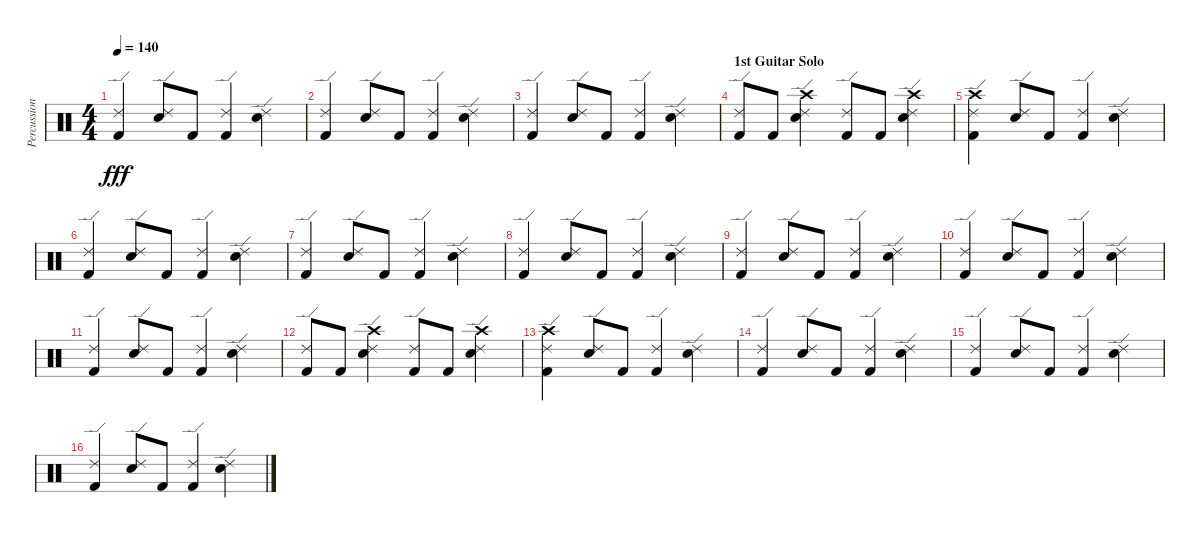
\track ("Percussion" "Percussion") {instrument percussion}
\staff {score}
\articulation defaults
\ts (4 4)
\tempo 140
\clef neutral
\ks c
("Ride (edge) 2" "Kick (hit) 2").4{dy fff} ("Ride (edge) 2" "Electric Snare (hit)").8 "Kick (hit) 2".8 ("Ride (edge) 2" "Kick (hit) 2").4 ("Ride (edge) 2" "Electric Snare (hit)").4 |
("Ride (edge) 2" "Kick (hit) 2").4 ("Ride (edge) 2" "Electric Snare (hit)").8 "Kick (hit) 2".8 ("Ride (edge) 2" "Kick (hit) 2").4 ("Ride (edge) 2" "Electric Snare (hit)").4 |
("Ride (edge) 2" "Kick (hit) 2").4 ("Ride (edge) 2" "Electric Snare (hit)").8 "Kick (hit) 2".8 ("Ride (edge) 2" "Kick (hit) 2").4 ("Ride (edge) 2" "Electric Snare (hit)").4 |
\section ("" "1st Guitar Solo ")
("Ride (edge) 2" "Kick (hit) 2").8 "Kick (hit) 2".8 ("Crash high (hit)" "Ride (edge) 2" "Electric Snare (hit)").4 ("Ride (edge) 2" "Kick (hit) 2").8 "Kick (hit) 2".8 ("Crash high (hit)" "Ride (edge) 2" "Electric Snare (hit)").4 |
("Crash high (hit)" "Ride (edge) 2" "Kick (hit) 2").4 ("Ride (edge) 2" "Electric Snare (hit)").8 "Kick (hit) 2".8 ("Ride (edge) 2" "Kick (hit) 2").4 ("Ride (edge) 2" "Electric Snare (hit)").4 |
("Ride (edge) 2" "Kick (hit) 2").4 ("Ride (edge) 2" "Electric Snare (hit)").8 "Kick (hit) 2".8 ("Ride (edge) 2" "Kick (hit) 2").4 ("Ride (edge) 2" "Electric Snare (hit)").4 |
("Ride (edge) 2" "Kick (hit) 2").4 ("Ride (edge) 2" "Electric Snare (hit)").8 "Kick (hit) 2".8 ("Ride (edge) 2" "Kick (hit) 2").4 ("Ride (edge) 2" "Electric Snare (hit)").4 |
("Ride (edge) 2" "Kick (hit) 2").4 ("Ride (edge) 2" "Electric Snare (hit)").8 "Kick (hit) 2".8 ("Ride (edge) 2" "Kick (hit) 2").4 ("Ride (edge) 2" "Electric Snare (hit)").4 |
("Ride (edge) 2" "Kick (hit) 2").4 ("Ride (edge) 2" "Electric Snare (hit)").8 "Kick (hit) 2".8 ("Ride (edge) 2" "Kick (hit) 2").4 ("Ride (edge) 2" "Electric Snare (hit)").4 |
("Ride (edge) 2" "Kick (hit) 2").4 ("Ride (edge) 2" "Electric Snare (hit)").8 "Kick (hit) 2".8 ("Ride (edge) 2" "Kick (hit) 2").4 ("Ride (edge) 2" "Electric Snare (hit)").4 |
("Ride (edge) 2" "Kick (hit) 2").4 ("Ride (edge) 2" "Electric Snare (hit)").8 "Kick (hit) 2".8 ("Ride (edge) 2" "Kick (hit) 2").4 ("Ride (edge) 2" "Electric Snare (hit)").4 |
("Ride (edge) 2" "Kick (hit) 2").8 "Kick (hit) 2".8 ("Crash high (hit)" "Ride (edge) 2" "Electric Snare (hit)").4 ("Ride (edge) 2" "Kick (hit) 2").8 "Kick (hit) 2".8 ("Crash high (hit)" "Ride (edge) 2" "Electric Snare (hit)").4 |
("Crash high (hit)" "Ride (edge) 2" "Kick (hit) 2").4 ("Ride (edge) 2" "Electric Snare (hit)").8 "Kick (hit) 2".8 ("Ride (edge) 2" "Kick (hit) 2").4 ("Ride (edge) 2" "Electric Snare (hit)").4 |
("Ride (edge) 2" "Kick (hit) 2").4 ("Ride (edge) 2" "Electric Snare (hit)").8 "Kick (hit) 2".8 ("Ride (edge) 2" "Kick (hit) 2").4 ("Ride (edge) 2" "Electric Snare (hit)").4 |
("Ride (edge) 2" "Kick (hit) 2").4 ("Ride (edge) 2" "Electric Snare (hit)").8 "Kick (hit) 2".8 ("Ride (edge) 2" "Kick (hit) 2").4 ("Ride (edge) 2" "Electric Snare (hit)").4 |
("Ride (edge) 2" "Kick (hit) 2").4 ("Ride (edge) 2" "Electric Snare (hit)").8 "Kick (hit) 2".8 ("Ride (edge) 2" "Kick (hit) 2").4 ("Ride (edge) 2" "Electric Snare (hit)").4
